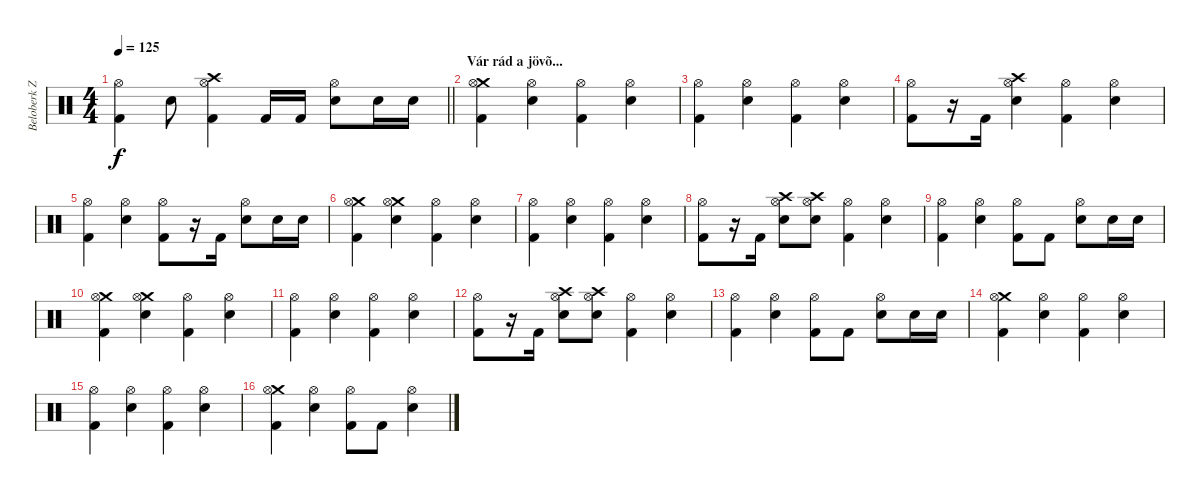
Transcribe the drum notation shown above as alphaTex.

\track ("Beloberk Zsolt - Dobok" "Beloberk Z") {instrument percussion}
\staff {score}
\articulation defaults
\ts (4 4)
\tempo 125
\clef neutral
\barLineRight lightlight
\ks c
("Hi-Hat (open)" "Kick (hit) 2").4{dy f} "Electric Snare (hit)".8 ("Crash high (hit)" "Hi-Hat (open)" "Kick (hit) 2").4 "Kick (hit) 2".16 "Kick (hit) 2".16 ("Hi-Hat (open)" "Electric Snare (hit)").8 "Electric Snare (hit)".16 "Electric Snare (hit)".16 |
\section ("" "Vár rád a jövõ...")
("Crash medium (hit)" "Hi-Hat (open)" "Kick (hit) 2").4 ("Hi-Hat (open)" "Electric Snare (hit)").4 ("Hi-Hat (open)" "Kick (hit) 2").4 ("Hi-Hat (open)" "Electric Snare (hit)").4 |
("Hi-Hat (open)" "Kick (hit) 2").4 ("Hi-Hat (open)" "Electric Snare (hit)").4 ("Hi-Hat (open)" "Kick (hit) 2").4 ("Hi-Hat (open)" "Electric Snare (hit)").4 |
("Hi-Hat (open)" "Kick (hit) 2").8 r.16 "Kick (hit) 2".16 ("Crash high (hit)" "Hi-Hat (open)" "Electric Snare (hit)").4 ("Hi-Hat (open)" "Kick (hit) 2").4 ("Hi-Hat (open)" "Electric Snare (hit)").4 |
("Hi-Hat (open)" "Kick (hit) 2").4 ("Hi-Hat (open)" "Electric Snare (hit)").4 ("Hi-Hat (open)" "Kick (hit) 2").8 r.16 "Kick (hit) 2".16 ("Hi-Hat (open)" "Electric Snare (hit)").8 "Electric Snare (hit)".16 "Electric Snare (hit)".16 |
("Crash medium (hit)" "Hi-Hat (open)" "Kick (hit) 2").4 ("Crash medium (hit)" "Hi-Hat (open)" "Electric Snare (hit)").4 ("Hi-Hat (open)" "Kick (hit) 2").4 ("Hi-Hat (open)" "Electric Snare (hit)").4 |
("Hi-Hat (open)" "Kick (hit) 2").4 ("Hi-Hat (open)" "Electric Snare (hit)").4 ("Hi-Hat (open)" "Kick (hit) 2").4 ("Hi-Hat (open)" "Electric Snare (hit)").4 |
("Hi-Hat (open)" "Kick (hit) 2").8 r.16 "Kick (hit) 2".16 ("Crash high (hit)" "Hi-Hat (open)" "Electric Snare (hit)").8 ("Crash high (hit)" "Hi-Hat (open)" "Electric Snare (hit)").8 ("Hi-Hat (open)" "Kick (hit) 2").4 ("Hi-Hat (open)" "Electric Snare (hit)").4 |
("Hi-Hat (open)" "Kick (hit) 2").4 ("Hi-Hat (open)" "Electric Snare (hit)").4 ("Hi-Hat (open)" "Kick (hit) 2").8 "Kick (hit) 2".8 ("Hi-Hat (open)" "Electric Snare (hit)").8 "Electric Snare (hit)".16 "Electric Snare (hit)".16 |
("Crash medium (hit)" "Hi-Hat (open)" "Kick (hit) 2").4 ("Crash medium (hit)" "Hi-Hat (open)" "Electric Snare (hit)").4 ("Hi-Hat (open)" "Kick (hit) 2").4 ("Hi-Hat (open)" "Electric Snare (hit)").4 |
("Hi-Hat (open)" "Kick (hit) 2").4 ("Hi-Hat (open)" "Electric Snare (hit)").4 ("Hi-Hat (open)" "Kick (hit) 2").4 ("Hi-Hat (open)" "Electric Snare (hit)").4 |
("Hi-Hat (open)" "Kick (hit) 2").8 r.16 "Kick (hit) 2".16 ("Crash high (hit)" "Hi-Hat (open)" "Electric Snare (hit)").8 ("Crash high (hit)" "Hi-Hat (open)" "Electric Snare (hit)").8 ("Hi-Hat (open)" "Kick (hit) 2").4 ("Hi-Hat (open)" "Electric Snare (hit)").4 |
("Hi-Hat (open)" "Kick (hit) 2").4 ("Hi-Hat (open)" "Electric Snare (hit)").4 ("Hi-Hat (open)" "Kick (hit) 2").8 "Kick (hit) 2".8 ("Hi-Hat (open)" "Electric Snare (hit)").8 "Electric Snare (hit)".16 "Electric Snare (hit)".16 |
("Crash medium (hit)" "Hi-Hat (open)" "Kick (hit) 2").4 ("Hi-Hat (open)" "Electric Snare (hit)").4 ("Hi-Hat (open)" "Kick (hit) 2").4 ("Hi-Hat (open)" "Electric Snare (hit)").4 |
("Hi-Hat (open)" "Kick (hit) 2").4 ("Hi-Hat (open)" "Electric Snare (hit)").4 ("Hi-Hat (open)" "Kick (hit) 2").4 ("Hi-Hat (open)" "Electric Snare (hit)").4 |
("Crash medium (hit)" "Hi-Hat (open)" "Kick (hit) 2").4 ("Hi-Hat (open)" "Electric Snare (hit)").4 ("Hi-Hat (open)" "Kick (hit) 2").8 "Kick (hit) 2".8 ("Hi-Hat (open)" "Electric Snare (hit)").4
